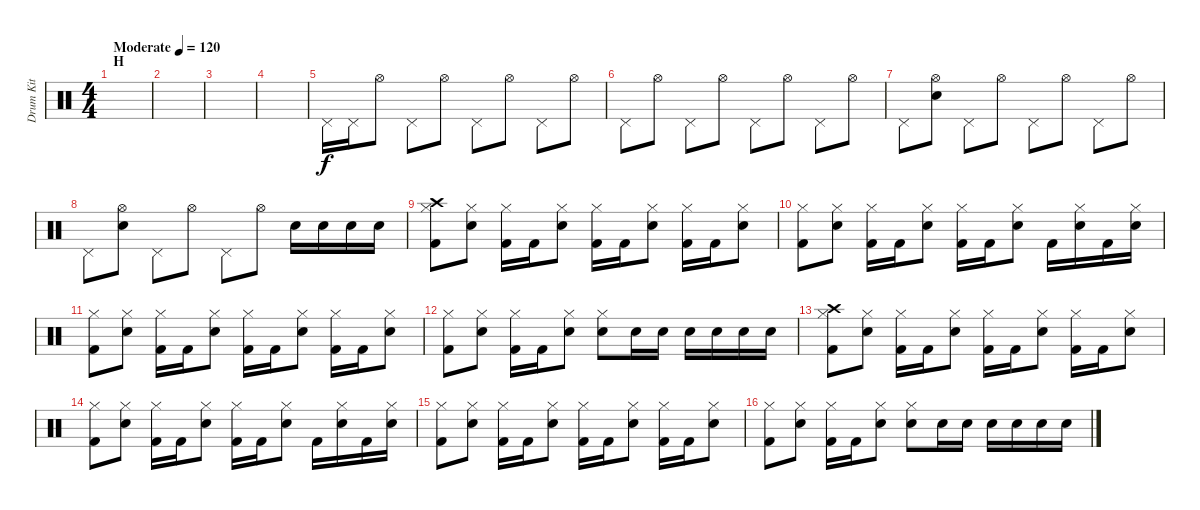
\track ("Drum Kit" "Drum Kit") {instrument percussion}
\staff {score}
\articulation defaults
\ts (4 4)
\section ("" "H")
\tempo (120 "Moderate")
\tempo 126
\tempo (120 "Moderate")
\clef neutral
\ks c
|
|
|
|
"Pedal Hi-Hat (hit)".16 "Pedal Hi-Hat (hit)".16 "Hi-Hat (open)".8 "Pedal Hi-Hat (hit)".8 "Hi-Hat (open)".8 "Pedal Hi-Hat (hit)".8 "Hi-Hat (open)".8 "Pedal Hi-Hat (hit)".8 "Hi-Hat (open)".8 |
"Pedal Hi-Hat (hit)".8 "Hi-Hat (open)".8 "Pedal Hi-Hat (hit)".8 "Hi-Hat (open)".8 "Pedal Hi-Hat (hit)".8 "Hi-Hat (open)".8 "Pedal Hi-Hat (hit)".8 "Hi-Hat (open)".8 |
"Pedal Hi-Hat (hit)".8 ("Hi-Hat (open)" "Snare (hit) 2").8 "Pedal Hi-Hat (hit)".8 "Hi-Hat (open)".8 "Pedal Hi-Hat (hit)".8 "Hi-Hat (open)".8 "Pedal Hi-Hat (hit)".8 "Hi-Hat (open)".8 |
"Pedal Hi-Hat (hit)".8 ("Hi-Hat (open)" "Snare (hit) 2").8 "Pedal Hi-Hat (hit)".8 "Hi-Hat (open)".8 "Pedal Hi-Hat (hit)".8 "Hi-Hat (open)".8 "Snare (hit) 2".16 "Snare (hit) 2".16 "Snare (hit) 2".16 "Snare (hit) 2".16 |
("Crash high (hit)" "Hi-Hat (closed)" "Kick (hit) 2").8 ("Hi-Hat (closed)" "Snare (hit) 2").8 ("Hi-Hat (closed)" "Kick (hit) 2").16 "Kick (hit) 2".16 ("Hi-Hat (closed)" "Snare (hit) 2").8 ("Hi-Hat (closed)" "Kick (hit) 2").16 "Kick (hit) 2".16 ("Hi-Hat (closed)" "Snare (hit) 2").8 ("Hi-Hat (closed)" "Kick (hit) 2").16 "Kick (hit) 2".16 ("Hi-Hat (closed)" "Snare (hit) 2").8 |
("Hi-Hat (closed)" "Kick (hit) 2").8 ("Hi-Hat (closed)" "Snare (hit) 2").8 ("Hi-Hat (closed)" "Kick (hit) 2").16 "Kick (hit) 2".16 ("Hi-Hat (closed)" "Snare (hit) 2").8 ("Hi-Hat (closed)" "Kick (hit) 2").16 "Kick (hit) 2".16 ("Hi-Hat (closed)" "Snare (hit) 2").8 "Kick (hit) 2".16 ("Hi-Hat (closed)" "Snare (hit) 2").16 "Kick (hit) 2".16 ("Hi-Hat (closed)" "Snare (hit) 2").16 |
("Hi-Hat (closed)" "Kick (hit) 2").8 ("Hi-Hat (closed)" "Snare (hit) 2").8 ("Hi-Hat (closed)" "Kick (hit) 2").16 "Kick (hit) 2".16 ("Hi-Hat (closed)" "Snare (hit) 2").8 ("Hi-Hat (closed)" "Kick (hit) 2").16 "Kick (hit) 2".16 ("Hi-Hat (closed)" "Snare (hit) 2").8 ("Hi-Hat (closed)" "Kick (hit) 2").16 "Kick (hit) 2".16 ("Hi-Hat (closed)" "Snare (hit) 2").8 |
("Hi-Hat (closed)" "Kick (hit) 2").8 ("Hi-Hat (closed)" "Snare (hit) 2").8 ("Hi-Hat (closed)" "Kick (hit) 2").16 "Kick (hit) 2".16 ("Hi-Hat (closed)" "Snare (hit) 2").8 ("Hi-Hat (closed)" "Snare (hit) 2").8 "Snare (hit) 2".16 "Snare (hit) 2".16 "Snare (hit) 2".16 "Snare (hit) 2".16 "Snare (hit) 2".16 "Snare (hit) 2".16 |
("Crash high (hit)" "Hi-Hat (closed)" "Kick (hit) 2").8 ("Hi-Hat (closed)" "Snare (hit) 2").8 ("Hi-Hat (closed)" "Kick (hit) 2").16 "Kick (hit) 2".16 ("Hi-Hat (closed)" "Snare (hit) 2").8 ("Hi-Hat (closed)" "Kick (hit) 2").16 "Kick (hit) 2".16 ("Hi-Hat (closed)" "Snare (hit) 2").8 ("Hi-Hat (closed)" "Kick (hit) 2").16 "Kick (hit) 2".16 ("Hi-Hat (closed)" "Snare (hit) 2").8 |
("Hi-Hat (closed)" "Kick (hit) 2").8 ("Hi-Hat (closed)" "Snare (hit) 2").8 ("Hi-Hat (closed)" "Kick (hit) 2").16 "Kick (hit) 2".16 ("Hi-Hat (closed)" "Snare (hit) 2").8 ("Hi-Hat (closed)" "Kick (hit) 2").16 "Kick (hit) 2".16 ("Hi-Hat (closed)" "Snare (hit) 2").8 "Kick (hit) 2".16 ("Hi-Hat (closed)" "Snare (hit) 2").16 "Kick (hit) 2".16 ("Hi-Hat (closed)" "Snare (hit) 2").16 |
("Hi-Hat (closed)" "Kick (hit) 2").8 ("Hi-Hat (closed)" "Snare (hit) 2").8 ("Hi-Hat (closed)" "Kick (hit) 2").16 "Kick (hit) 2".16 ("Hi-Hat (closed)" "Snare (hit) 2").8 ("Hi-Hat (closed)" "Kick (hit) 2").16 "Kick (hit) 2".16 ("Hi-Hat (closed)" "Snare (hit) 2").8 ("Hi-Hat (closed)" "Kick (hit) 2").16 "Kick (hit) 2".16 ("Hi-Hat (closed)" "Snare (hit) 2").8 |
("Hi-Hat (closed)" "Kick (hit) 2").8 ("Hi-Hat (closed)" "Snare (hit) 2").8 ("Hi-Hat (closed)" "Kick (hit) 2").16 "Kick (hit) 2".16 ("Hi-Hat (closed)" "Snare (hit) 2").8 ("Hi-Hat (closed)" "Snare (hit) 2").8 "Snare (hit) 2".16 "Snare (hit) 2".16 "Snare (hit) 2".16 "Snare (hit) 2".16 "Snare (hit) 2".16 "Snare (hit) 2".16
